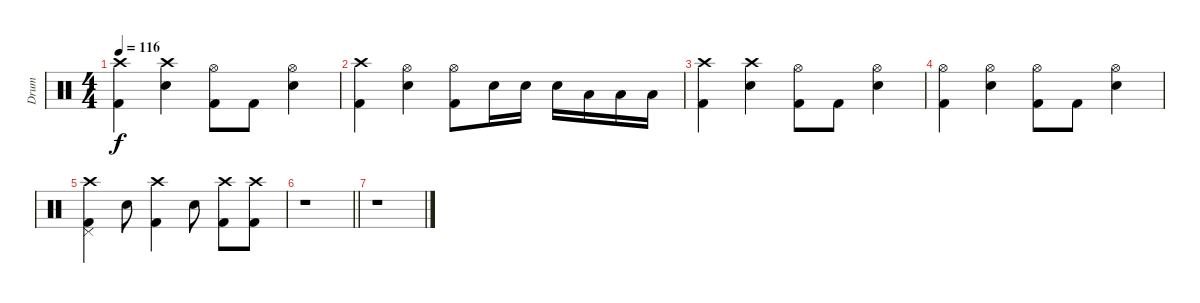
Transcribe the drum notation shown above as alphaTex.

\track ("Drum" "Drum") {instrument percussion}
\staff {score}
\articulation defaults
\ts (4 4)
\tempo 116
\clef neutral
\ks c
("Crash high (hit)" "Kick (hit) 2").4{dy f} ("Crash high (hit)" "Electric Snare (hit)").4 ("Hi-Hat (open)" "Kick (hit) 2").8 "Kick (hit) 2".8 ("Hi-Hat (open)" "Electric Snare (hit)").4 |
("Crash high (hit)" "Kick (hit) 2").4 ("Hi-Hat (open)" "Electric Snare (hit)").4 ("Hi-Hat (open)" "Kick (hit) 2").8 "Electric Snare (hit)".16 "Electric Snare (hit)".16 "Electric Snare (hit)".16 "Low Tom (hit)".16 "Low Floor Tom (hit)".16 "Low Floor Tom (hit)".16 |
("Crash high (hit)" "Kick (hit) 2").4 ("Crash high (hit)" "Electric Snare (hit)").4 ("Hi-Hat (open)" "Kick (hit) 2").8 "Kick (hit) 2".8 ("Hi-Hat (open)" "Electric Snare (hit)").4 |
("Hi-Hat (open)" "Kick (hit) 2").4 ("Hi-Hat (open)" "Electric Snare (hit)").4 ("Hi-Hat (open)" "Kick (hit) 2").8 "Kick (hit) 2".8 ("Hi-Hat (open)" "Electric Snare (hit)").4 |
("Crash high (hit)" "Kick (hit) 2" "Pedal Hi-Hat (hit)").4 "Electric Snare (hit)".8 ("Crash high (hit)" "Kick (hit) 2").4 "Electric Snare (hit)".8 ("Crash high (hit)" "Kick (hit) 2").8 ("Crash high (hit)" "Kick (hit) 2").8 |
\barLineRight lightlight
r.1 |
r.1
